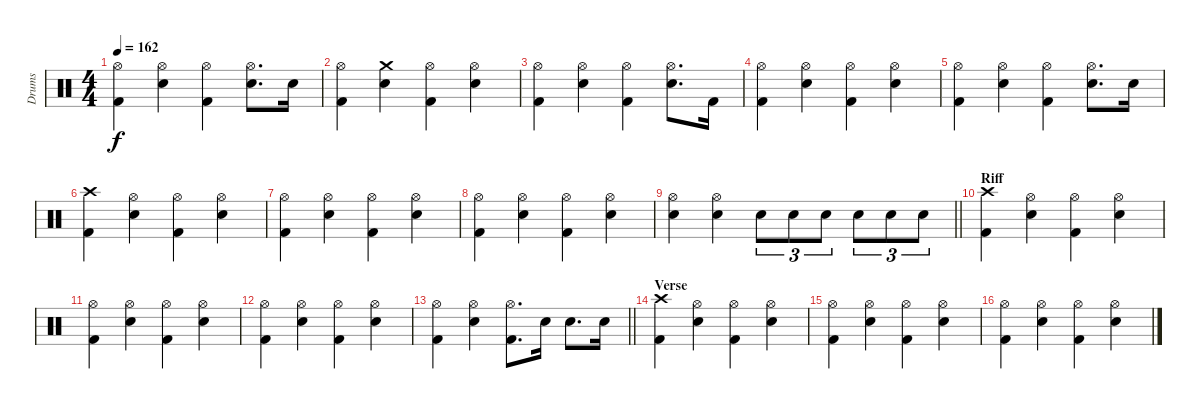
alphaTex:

\track ("Drums" "Drums") {instrument percussion}
\staff {score}
\articulation defaults
\ts (4 4)
\tempo 162
\clef neutral
\ks c
("Hi-Hat (open)" "Kick (hit) 2").4{dy f} ("Hi-Hat (open)" "Electric Snare (hit)").4 ("Hi-Hat (open)" "Kick (hit) 2").4 ("Hi-Hat (open)" "Electric Snare (hit)").8{d} "Electric Snare (hit)".16 |
("Hi-Hat (open)" "Kick (hit) 2").4 ("Crash medium (hit)" "Electric Snare (hit)").4 ("Hi-Hat (open)" "Kick (hit) 2").4 ("Hi-Hat (open)" "Electric Snare (hit)").4 |
("Hi-Hat (open)" "Kick (hit) 2").4 ("Hi-Hat (open)" "Electric Snare (hit)").4 ("Hi-Hat (open)" "Kick (hit) 2").4 ("Hi-Hat (open)" "Electric Snare (hit)").8{d} "Kick (hit) 2".16 |
("Hi-Hat (open)" "Kick (hit) 2").4 ("Hi-Hat (open)" "Electric Snare (hit)").4 ("Hi-Hat (open)" "Kick (hit) 2").4 ("Hi-Hat (open)" "Electric Snare (hit)").4 |
("Hi-Hat (open)" "Kick (hit) 2").4 ("Hi-Hat (open)" "Electric Snare (hit)").4 ("Hi-Hat (open)" "Kick (hit) 2").4 ("Hi-Hat (open)" "Electric Snare (hit)").8{d} "Electric Snare (hit)".16 |
("Crash high (hit)" "Kick (hit) 2").4 ("Hi-Hat (open)" "Electric Snare (hit)").4 ("Hi-Hat (open)" "Kick (hit) 2").4 ("Hi-Hat (open)" "Electric Snare (hit)").4 |
("Hi-Hat (open)" "Kick (hit) 2").4 ("Hi-Hat (open)" "Electric Snare (hit)").4 ("Hi-Hat (open)" "Kick (hit) 2").4 ("Hi-Hat (open)" "Electric Snare (hit)").4 |
("Hi-Hat (open)" "Kick (hit) 2").4 ("Hi-Hat (open)" "Electric Snare (hit)").4 ("Hi-Hat (open)" "Kick (hit) 2").4 ("Hi-Hat (open)" "Electric Snare (hit)").4 |
\barLineRight lightlight
("Hi-Hat (open)" "Electric Snare (hit)").4 ("Hi-Hat (open)" "Electric Snare (hit)").4 "Electric Snare (hit)".8{tu (3 2)} "Electric Snare (hit)".8{tu (3 2)} "Electric Snare (hit)".8{tu (3 2)} "Electric Snare (hit)".8{tu (3 2)} "Electric Snare (hit)".8{tu (3 2)} "Electric Snare (hit)".8{tu (3 2)} |
\section ("" "Riff")
("Crash high (hit)" "Kick (hit) 2").4 ("Hi-Hat (open)" "Electric Snare (hit)").4 ("Hi-Hat (open)" "Kick (hit) 2").4 ("Hi-Hat (open)" "Electric Snare (hit)").4 |
("Hi-Hat (open)" "Kick (hit) 2").4 ("Hi-Hat (open)" "Electric Snare (hit)").4 ("Hi-Hat (open)" "Kick (hit) 2").4 ("Hi-Hat (open)" "Electric Snare (hit)").4 |
("Hi-Hat (open)" "Kick (hit) 2").4 ("Hi-Hat (open)" "Electric Snare (hit)").4 ("Hi-Hat (open)" "Kick (hit) 2").4 ("Hi-Hat (open)" "Electric Snare (hit)").4 |
\barLineRight lightlight
("Hi-Hat (open)" "Kick (hit) 2").4 ("Hi-Hat (open)" "Electric Snare (hit)").4 ("Hi-Hat (open)" "Kick (hit) 2").8{d} "Electric Snare (hit)".16 "Electric Snare (hit)".8{d} "Electric Snare (hit)".16 |
\section ("" "Verse")
("Crash high (hit)" "Kick (hit) 2").4 ("Hi-Hat (open)" "Electric Snare (hit)").4 ("Hi-Hat (open)" "Kick (hit) 2").4 ("Hi-Hat (open)" "Electric Snare (hit)").4 |
("Hi-Hat (open)" "Kick (hit) 2").4 ("Hi-Hat (open)" "Electric Snare (hit)").4 ("Hi-Hat (open)" "Kick (hit) 2").4 ("Hi-Hat (open)" "Electric Snare (hit)").4 |
("Hi-Hat (open)" "Kick (hit) 2").4 ("Hi-Hat (open)" "Electric Snare (hit)").4 ("Hi-Hat (open)" "Kick (hit) 2").4 ("Hi-Hat (open)" "Electric Snare (hit)").4
